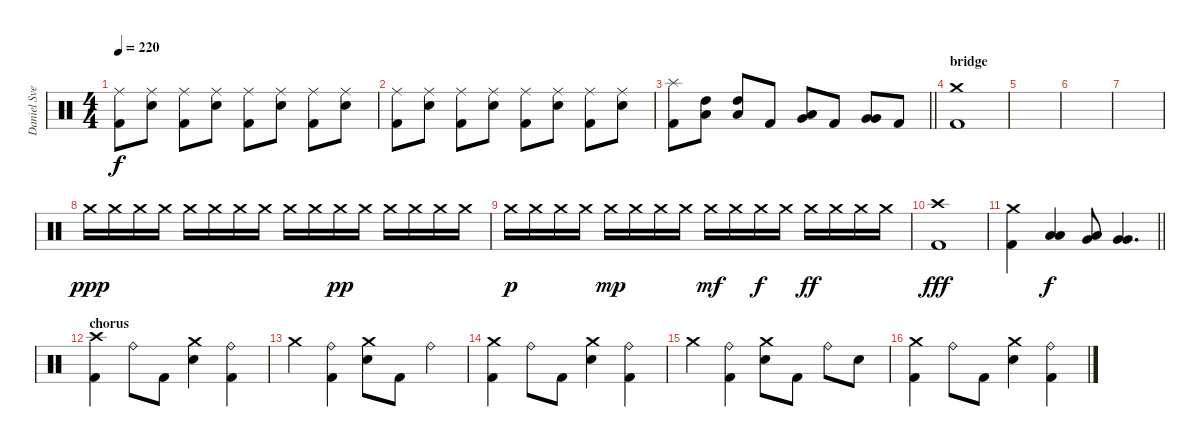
\track ("Daniel Svensson" "Daniel Sve") {instrument percussion}
\staff {score}
\articulation defaults
\ts (4 4)
\tempo 220
\clef neutral
\ks c
("Ride (middle)" "Kick (hit) 2").8{dy f} ("Ride (middle)" "Electric Snare (hit)").8 ("Ride (middle)" "Kick (hit) 2").8 ("Ride (middle)" "Electric Snare (hit)").8 ("Ride (middle)" "Kick (hit) 2").8 ("Ride (middle)" "Electric Snare (hit)").8 ("Ride (middle)" "Kick (hit) 2").8 ("Ride (middle)" "Electric Snare (hit)").8 |
("Ride (middle)" "Kick (hit) 2").8 ("Ride (middle)" "Electric Snare (hit)").8 ("Ride (middle)" "Kick (hit) 2").8 ("Ride (middle)" "Electric Snare (hit)").8 ("Ride (middle)" "Kick (hit) 2").8 ("Ride (middle)" "Electric Snare (hit)").8 ("Ride (middle)" "Kick (hit) 2").8 ("Ride (middle)" "Electric Snare (hit)").8 |
\barLineRight lightlight
("Splash (hit)" "Kick (hit) 2").8 ("High Tom (hit)" "Low Tom (hit)").8 ("High Tom (hit)" "Low Tom (hit)").8 "Kick (hit) 2".8 ("Very Low Tom (hit)" "Low Tom (hit)").8 "Kick (hit) 2".8 ("Very Low Tom (hit)" "Very Low Tom (hit)").8 "Kick (hit) 2".8 |
\section ("" "bridge")
("Crash medium (hit)" "Kick (hit) 2").1 |
|
|
|
"Crash medium (hit)".16{dy ppp} "Crash medium (hit)".16 "Crash medium (hit)".16 "Crash medium (hit)".16 "Crash medium (hit)".16 "Crash medium (hit)".16 "Crash medium (hit)".16 "Crash medium (hit)".16 "Crash medium (hit)".16 "Crash medium (hit)".16 "Crash medium (hit)".16{dy pp} "Crash medium (hit)".16 "Crash medium (hit)".16 "Crash medium (hit)".16 "Crash medium (hit)".16 "Crash medium (hit)".16 |
"Crash medium (hit)".16{dy p} "Crash medium (hit)".16 "Crash medium (hit)".16 "Crash medium (hit)".16 "Crash medium (hit)".16{dy mp} "Crash medium (hit)".16 "Crash medium (hit)".16 "Crash medium (hit)".16 "Crash medium (hit)".16{dy mf} "Crash medium (hit)".16 "Crash medium (hit)".16{dy f} "Crash medium (hit)".16 "Crash medium (hit)".16{dy ff} "Crash medium (hit)".16 "Crash medium (hit)".16 "Crash medium (hit)".16 |
("Crash high (hit)" "Kick (hit) 2").1{dy fff} |
\barLineRight lightlight
("Crash medium (hit)" "Kick (hit) 2").4 ("Low Tom (hit)" "Low Tom (hit)").4{dy f} ("Very Low Tom (hit)" "Low Tom (hit)").8 ("Very Low Tom (hit)" "Very Low Tom (hit)").4{d} |
\section ("" "chorus")
("Crash high (hit)" "Kick (hit) 2").4 "Ride (bell)".8 "Kick (hit) 2".8 ("Crash medium (hit)" "Electric Snare (hit)").4 ("Ride (bell)" "Kick (hit) 2").4 |
"Crash medium (hit)".4 ("Ride (bell)" "Kick (hit) 2").4 ("Crash medium (hit)" "Electric Snare (hit)").8 "Kick (hit) 2".8 "Ride (bell)".4 |
("Crash medium (hit)" "Kick (hit) 2").4 "Ride (bell)".8 "Kick (hit) 2".8 ("Crash medium (hit)" "Electric Snare (hit)").4 ("Ride (bell)" "Kick (hit) 2").4 |
"Crash medium (hit)".4 ("Ride (bell)" "Kick (hit) 2").4 ("Crash medium (hit)" "Electric Snare (hit)").8 "Kick (hit) 2".8 "Ride (bell)".8 "Electric Snare (hit)".8 |
("Crash medium (hit)" "Kick (hit) 2").4 "Ride (bell)".8 "Kick (hit) 2".8 ("Crash medium (hit)" "Electric Snare (hit)").4 ("Ride (bell)" "Kick (hit) 2").4
